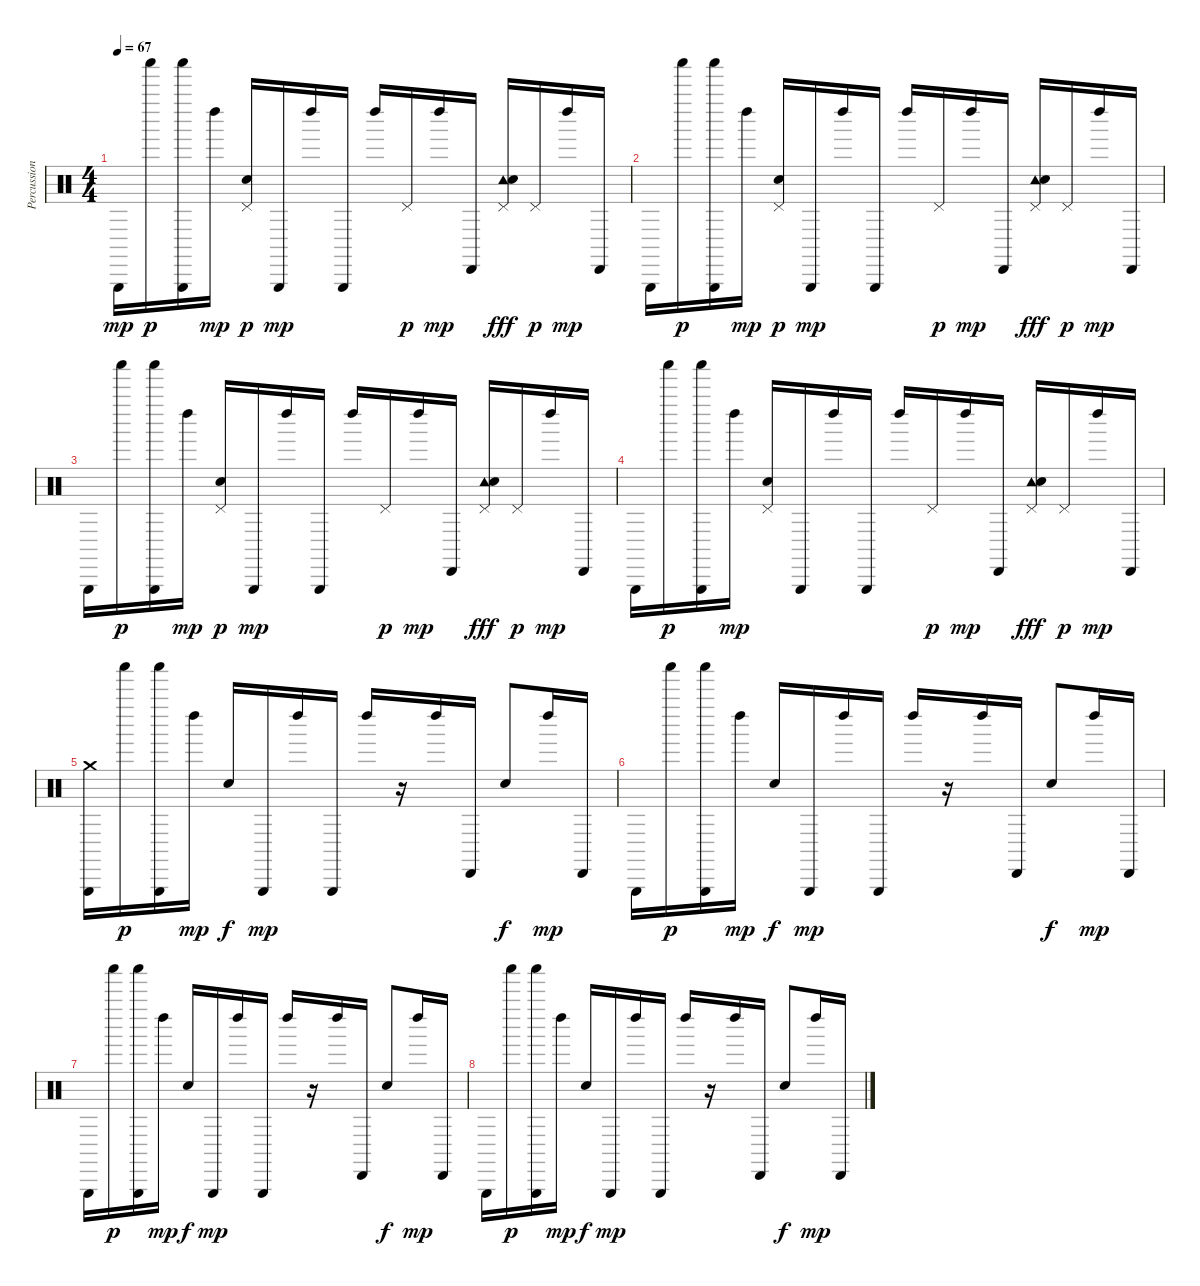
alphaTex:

\track ("Percussion" "Percussion") {instrument percussion}
\staff {score}
\articulation defaults
\ts (4 4)
\tempo 67
\clef neutral
\ks c "Triangle (hit)".16{dy mp} "Shaker (hit)".16{dy p}
("Triangle (hit)" "Shaker (hit)").16 "Left Maraca (hit)".16{dy mp} ("Pedal Hi-Hat (hit)" "Snare (hit) 2").16{dy p} "Triangle (hit)".16{dy mp} "Left Maraca (hit)".16 "Triangle (hit)".16 "Left Maraca (hit)".16 "Pedal Hi-Hat (hit)".16{dy p} "Left Maraca (hit)".16{dy mp} "Cabasa (hit)".16 ("Pedal Hi-Hat (hit)" "Tambourine (hit)" "Snare (hit) 2").16{dy fff} "Pedal Hi-Hat (hit)".16{dy p} "Left Maraca (hit)".16{dy mp} "Cabasa (hit)".16 |
"Triangle (hit)".16 "Shaker (hit)".16{dy p} ("Triangle (hit)" "Shaker (hit)").16 "Left Maraca (hit)".16{dy mp} ("Pedal Hi-Hat (hit)" "Snare (hit) 2").16{dy p} "Triangle (hit)".16{dy mp} "Left Maraca (hit)".16 "Triangle (hit)".16 "Left Maraca (hit)".16 "Pedal Hi-Hat (hit)".16{dy p} "Left Maraca (hit)".16{dy mp} "Cabasa (hit)".16 ("Pedal Hi-Hat (hit)" "Tambourine (hit)" "Snare (hit) 2").16{dy fff} "Pedal Hi-Hat (hit)".16{dy p} "Left Maraca (hit)".16{dy mp} "Cabasa (hit)".16 |
"Triangle (hit)".16 "Shaker (hit)".16{dy p} ("Triangle (hit)" "Shaker (hit)").16 "Left Maraca (hit)".16{dy mp} ("Pedal Hi-Hat (hit)" "Snare (hit) 2").16{dy p} "Triangle (hit)".16{dy mp} "Left Maraca (hit)".16 "Triangle (hit)".16 "Left Maraca (hit)".16 "Pedal Hi-Hat (hit)".16{dy p} "Left Maraca (hit)".16{dy mp} "Cabasa (hit)".16 ("Pedal Hi-Hat (hit)" "Tambourine (hit)" "Snare (hit) 2").16{dy fff} "Pedal Hi-Hat (hit)".16{dy p} "Left Maraca (hit)".16{dy mp} "Cabasa (hit)".16 |
"Triangle (hit)".16 "Shaker (hit)".16{dy p} ("Triangle (hit)" "Shaker (hit)").16 "Left Maraca (hit)".16{dy mp} ("Pedal Hi-Hat (hit)" "Snare (hit) 2").16 "Triangle (hit)".16 "Left Maraca (hit)".16 "Triangle (hit)".16 "Left Maraca (hit)".16 "Pedal Hi-Hat (hit)".16{dy p} "Left Maraca (hit)".16{dy mp} "Cabasa (hit)".16 ("Pedal Hi-Hat (hit)" "Tambourine (hit)" "Snare (hit) 2").16{dy fff} "Pedal Hi-Hat (hit)".16{dy p} "Left Maraca (hit)".16{dy mp} "Cabasa (hit)".16 |
("Crash medium (hit)" "Triangle (hit)").16 "Shaker (hit)".16{dy p} ("Triangle (hit)" "Shaker (hit)").16 "Left Maraca (hit)".16{dy mp} "Snare (hit) 2".16{dy f} "Triangle (hit)".16{dy mp} "Left Maraca (hit)".16 "Triangle (hit)".16 "Left Maraca (hit)".16 r.16 "Left Maraca (hit)".16 "Cabasa (hit)".16 "Snare (hit) 2".8{dy f} "Left Maraca (hit)".16{dy mp} "Cabasa (hit)".16 |
"Triangle (hit)".16 "Shaker (hit)".16{dy p} ("Triangle (hit)" "Shaker (hit)").16 "Left Maraca (hit)".16{dy mp} "Snare (hit) 2".16{dy f} "Triangle (hit)".16{dy mp} "Left Maraca (hit)".16 "Triangle (hit)".16 "Left Maraca (hit)".16 r.16 "Left Maraca (hit)".16 "Cabasa (hit)".16 "Snare (hit) 2".8{dy f} "Left Maraca (hit)".16{dy mp} "Cabasa (hit)".16 |
"Triangle (hit)".16 "Shaker (hit)".16{dy p} ("Triangle (hit)" "Shaker (hit)").16 "Left Maraca (hit)".16{dy mp} "Snare (hit) 2".16{dy f} "Triangle (hit)".16{dy mp} "Left Maraca (hit)".16 "Triangle (hit)".16 "Left Maraca (hit)".16 r.16 "Left Maraca (hit)".16 "Cabasa (hit)".16 "Snare (hit) 2".8{dy f} "Left Maraca (hit)".16{dy mp} "Cabasa (hit)".16 |
"Triangle (hit)".16 "Shaker (hit)".16{dy p} ("Triangle (hit)" "Shaker (hit)").16 "Left Maraca (hit)".16{dy mp} "Snare (hit) 2".16{dy f} "Triangle (hit)".16{dy mp} "Left Maraca (hit)".16 "Triangle (hit)".16 "Left Maraca (hit)".16 r.16 "Left Maraca (hit)".16 "Cabasa (hit)".16 "Snare (hit) 2".8{dy f} "Left Maraca (hit)".16{dy mp} "Cabasa (hit)".16
